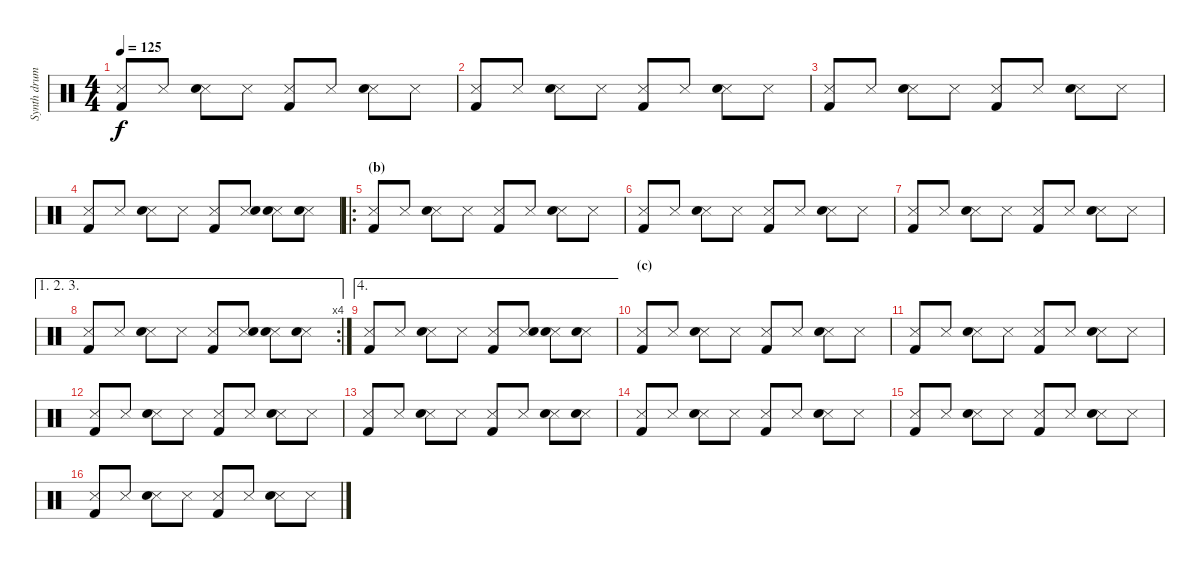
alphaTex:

\track ("Synth drums" "Synth drum") {instrument percussion}
\staff {score}
\articulation defaults
\ts (4 4)
\tempo 125
\clef neutral
\ks c
("Snare (side stick) 3" "Kick (hit) 2").8{dy f} "Snare (side stick) 3".8 ("Snare (side stick) 3" "Electric Snare (hit)").8 "Snare (side stick) 3".8 ("Snare (side stick) 3" "Kick (hit) 2").8 "Snare (side stick) 3".8 ("Snare (side stick) 3" "Electric Snare (hit)").8 "Snare (side stick) 3".8 |
("Snare (side stick) 3" "Kick (hit) 2").8 "Snare (side stick) 3".8 ("Snare (side stick) 3" "Electric Snare (hit)").8 "Snare (side stick) 3".8 ("Snare (side stick) 3" "Kick (hit) 2").8 "Snare (side stick) 3".8 ("Snare (side stick) 3" "Electric Snare (hit)").8 "Snare (side stick) 3".8 |
("Snare (side stick) 3" "Kick (hit) 2").8 "Snare (side stick) 3".8 ("Snare (side stick) 3" "Electric Snare (hit)").8 "Snare (side stick) 3".8 ("Snare (side stick) 3" "Kick (hit) 2").8 "Snare (side stick) 3".8 ("Snare (side stick) 3" "Electric Snare (hit)").8 "Snare (side stick) 3".8 |
("Snare (side stick) 3" "Kick (hit) 2").8 "Snare (side stick) 3".8 ("Snare (side stick) 3" "Electric Snare (hit)").8 "Snare (side stick) 3".8 ("Snare (side stick) 3" "Kick (hit) 2").8 ("Snare (side stick) 3" "Electric Snare (hit)").8 ("Snare (side stick) 3" "Electric Snare (hit)").8 ("Snare (side stick) 3" "Electric Snare (hit)").8 |
\ro
\section ("" "(b)")
("Snare (side stick) 3" "Kick (hit) 2").8 "Snare (side stick) 3".8 ("Snare (side stick) 3" "Electric Snare (hit)").8 "Snare (side stick) 3".8 ("Snare (side stick) 3" "Kick (hit) 2").8 "Snare (side stick) 3".8 ("Snare (side stick) 3" "Electric Snare (hit)").8 "Snare (side stick) 3".8 |
("Snare (side stick) 3" "Kick (hit) 2").8 "Snare (side stick) 3".8 ("Snare (side stick) 3" "Electric Snare (hit)").8 "Snare (side stick) 3".8 ("Snare (side stick) 3" "Kick (hit) 2").8 "Snare (side stick) 3".8 ("Snare (side stick) 3" "Electric Snare (hit)").8 "Snare (side stick) 3".8 |
("Snare (side stick) 3" "Kick (hit) 2").8 "Snare (side stick) 3".8 ("Snare (side stick) 3" "Electric Snare (hit)").8 "Snare (side stick) 3".8 ("Snare (side stick) 3" "Kick (hit) 2").8 "Snare (side stick) 3".8 ("Snare (side stick) 3" "Electric Snare (hit)").8 "Snare (side stick) 3".8 |
\ae (1 2 3)
\rc 4
("Snare (side stick) 3" "Kick (hit) 2").8 "Snare (side stick) 3".8 ("Snare (side stick) 3" "Electric Snare (hit)").8 "Snare (side stick) 3".8 ("Snare (side stick) 3" "Kick (hit) 2").8 ("Snare (side stick) 3" "Electric Snare (hit)").8 ("Snare (side stick) 3" "Electric Snare (hit)").8 ("Snare (side stick) 3" "Electric Snare (hit)").8 |
\ae 4
("Snare (side stick) 3" "Kick (hit) 2").8 "Snare (side stick) 3".8 ("Snare (side stick) 3" "Electric Snare (hit)").8 "Snare (side stick) 3".8 ("Snare (side stick) 3" "Kick (hit) 2").8 ("Snare (side stick) 3" "Electric Snare (hit)").8 ("Snare (side stick) 3" "Electric Snare (hit)").8 ("Snare (side stick) 3" "Electric Snare (hit)").8 |
\section ("" "(c)")
("Snare (side stick) 3" "Kick (hit) 2").8 "Snare (side stick) 3".8 ("Snare (side stick) 3" "Electric Snare (hit)").8 "Snare (side stick) 3".8 ("Snare (side stick) 3" "Kick (hit) 2").8 "Snare (side stick) 3".8 ("Snare (side stick) 3" "Electric Snare (hit)").8 "Snare (side stick) 3".8 |
("Snare (side stick) 3" "Kick (hit) 2").8 "Snare (side stick) 3".8 ("Snare (side stick) 3" "Electric Snare (hit)").8 "Snare (side stick) 3".8 ("Snare (side stick) 3" "Kick (hit) 2").8 "Snare (side stick) 3".8 ("Snare (side stick) 3" "Electric Snare (hit)").8 "Snare (side stick) 3".8 |
("Snare (side stick) 3" "Kick (hit) 2").8 "Snare (side stick) 3".8 ("Snare (side stick) 3" "Electric Snare (hit)").8 "Snare (side stick) 3".8 ("Snare (side stick) 3" "Kick (hit) 2").8 "Snare (side stick) 3".8 ("Snare (side stick) 3" "Electric Snare (hit)").8 "Snare (side stick) 3".8 |
("Snare (side stick) 3" "Kick (hit) 2").8 "Snare (side stick) 3".8 ("Snare (side stick) 3" "Electric Snare (hit)").8 "Snare (side stick) 3".8 ("Snare (side stick) 3" "Kick (hit) 2").8 "Snare (side stick) 3".8 ("Snare (side stick) 3" "Electric Snare (hit)").8 ("Snare (side stick) 3" "Electric Snare (hit)").8 |
("Snare (side stick) 3" "Kick (hit) 2").8 "Snare (side stick) 3".8 ("Snare (side stick) 3" "Electric Snare (hit)").8 "Snare (side stick) 3".8 ("Snare (side stick) 3" "Kick (hit) 2").8 "Snare (side stick) 3".8 ("Snare (side stick) 3" "Electric Snare (hit)").8 "Snare (side stick) 3".8 |
("Snare (side stick) 3" "Kick (hit) 2").8 "Snare (side stick) 3".8 ("Snare (side stick) 3" "Electric Snare (hit)").8 "Snare (side stick) 3".8 ("Snare (side stick) 3" "Kick (hit) 2").8 "Snare (side stick) 3".8 ("Snare (side stick) 3" "Electric Snare (hit)").8 "Snare (side stick) 3".8 |
("Snare (side stick) 3" "Kick (hit) 2").8 "Snare (side stick) 3".8 ("Snare (side stick) 3" "Electric Snare (hit)").8 "Snare (side stick) 3".8 ("Snare (side stick) 3" "Kick (hit) 2").8 "Snare (side stick) 3".8 ("Snare (side stick) 3" "Electric Snare (hit)").8 "Snare (side stick) 3".8
